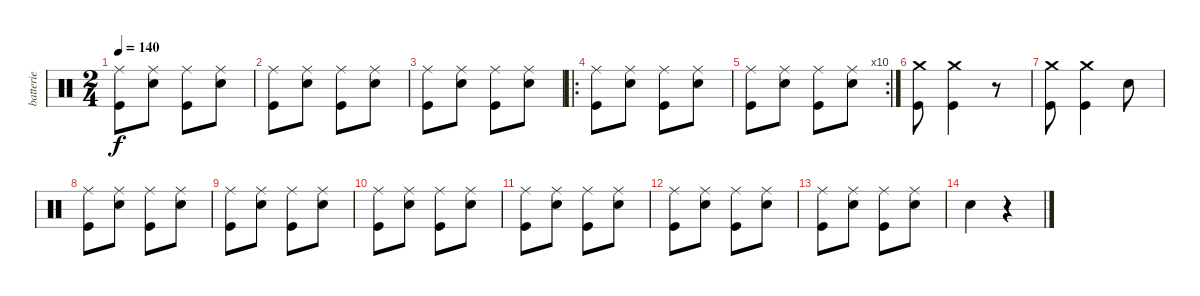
\track ("batterie " "batterie ") {instrument percussion}
\staff {score}
\articulation defaults
\ts (2 4)
\tempo 140
\clef neutral
\ks c
("Ride (middle)" "Kick (hit)").8{dy f} ("Ride (middle)" "Snare (hit) 2").8 ("Ride (middle)" "Kick (hit)").8 ("Ride (middle)" "Snare (hit) 2").8 |
("Ride (middle)" "Kick (hit)").8 ("Ride (middle)" "Snare (hit) 2").8 ("Ride (middle)" "Kick (hit)").8 ("Ride (middle)" "Snare (hit) 2").8 |
("Ride (middle)" "Kick (hit)").8 ("Ride (middle)" "Snare (hit) 2").8 ("Ride (middle)" "Kick (hit)").8 ("Ride (middle)" "Snare (hit) 2").8 |
\ro
("Ride (middle)" "Kick (hit)").8 ("Ride (middle)" "Snare (hit) 2").8 ("Ride (middle)" "Kick (hit)").8 ("Ride (middle)" "Snare (hit) 2").8 |
\rc 10
("Ride (middle)" "Kick (hit)").8 ("Ride (middle)" "Snare (hit) 2").8 ("Ride (middle)" "Kick (hit)").8 ("Ride (middle)" "Snare (hit) 2").8 |
("Crash medium (hit)" "Kick (hit)").8 ("Crash medium (hit)" "Kick (hit)").4 r.8 |
("Crash medium (hit)" "Kick (hit)").8 ("Crash medium (hit)" "Kick (hit)").4 "Snare (hit) 2".8 |
("Ride (middle)" "Kick (hit)").8 ("Ride (middle)" "Snare (hit) 2").8 ("Ride (middle)" "Kick (hit)").8 ("Ride (middle)" "Snare (hit) 2").8 |
("Ride (middle)" "Kick (hit)").8 ("Ride (middle)" "Snare (hit) 2").8 ("Ride (middle)" "Kick (hit)").8 ("Ride (middle)" "Snare (hit) 2").8 |
("Ride (middle)" "Kick (hit)").8 ("Ride (middle)" "Snare (hit) 2").8 ("Ride (middle)" "Kick (hit)").8 ("Ride (middle)" "Snare (hit) 2").8 |
("Ride (middle)" "Kick (hit)").8 ("Ride (middle)" "Snare (hit) 2").8 ("Ride (middle)" "Kick (hit)").8 ("Ride (middle)" "Snare (hit) 2").8 |
("Ride (middle)" "Kick (hit)").8 ("Ride (middle)" "Snare (hit) 2").8 ("Ride (middle)" "Kick (hit)").8 ("Ride (middle)" "Snare (hit) 2").8 |
("Ride (middle)" "Kick (hit)").8 ("Ride (middle)" "Snare (hit) 2").8 ("Ride (middle)" "Kick (hit)").8 ("Ride (middle)" "Snare (hit) 2").8 |
"Snare (hit) 2".4 r.4
